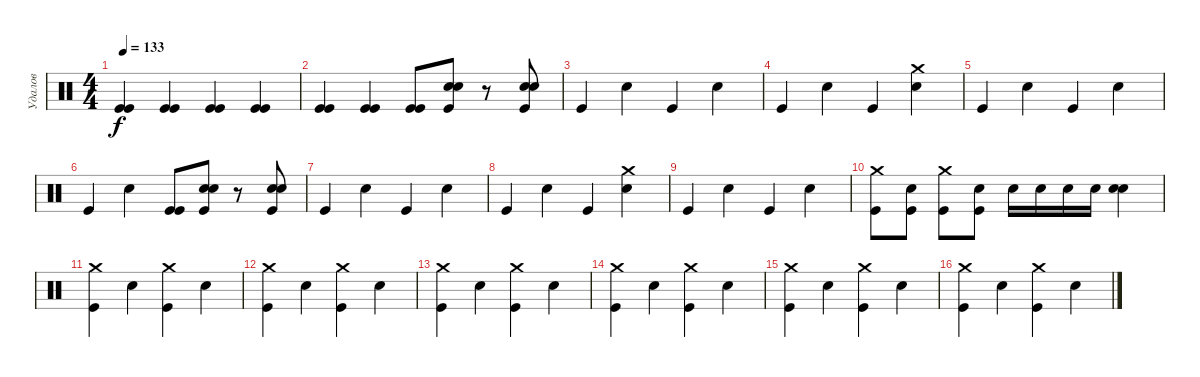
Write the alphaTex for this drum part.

\track ("Удалов" "Удалов") {instrument percussion}
\staff {score}
\articulation defaults
\ts (4 4)
\tempo 133
\clef neutral
\ks c
("Kick (hit)" "Kick (hit)").4{dy f} ("Kick (hit)" "Kick (hit)").4 ("Kick (hit)" "Kick (hit)").4 ("Kick (hit)" "Kick (hit)").4 |
("Kick (hit)" "Kick (hit)").4 ("Kick (hit)" "Kick (hit)").4 ("Kick (hit)" "Kick (hit)").8 ("Electric Snare (hit)" "Electric Snare (hit)" "Kick (hit)").8 r.8 ("Electric Snare (hit)" "Electric Snare (hit)" "Kick (hit)").8 |
"Kick (hit)".4 "Electric Snare (hit)".4 "Kick (hit)".4 "Electric Snare (hit)".4 |
"Kick (hit)".4 "Electric Snare (hit)".4 "Kick (hit)".4 ("Crash medium (hit)" "Electric Snare (hit)").4 |
"Kick (hit)".4 "Electric Snare (hit)".4 "Kick (hit)".4 "Electric Snare (hit)".4 |
"Kick (hit)".4 "Electric Snare (hit)".4 ("Kick (hit)" "Kick (hit)").8 ("Electric Snare (hit)" "Electric Snare (hit)" "Kick (hit)").8 r.8 ("Electric Snare (hit)" "Electric Snare (hit)" "Kick (hit)").8 |
"Kick (hit)".4 "Electric Snare (hit)".4 "Kick (hit)".4 "Electric Snare (hit)".4 |
"Kick (hit)".4 "Electric Snare (hit)".4 "Kick (hit)".4 ("Crash medium (hit)" "Electric Snare (hit)").4 |
"Kick (hit)".4 "Electric Snare (hit)".4 "Kick (hit)".4 "Electric Snare (hit)".4 |
("Crash medium (hit)" "Kick (hit)").8 ("Electric Snare (hit)" "Kick (hit)").8 ("Crash medium (hit)" "Kick (hit)").8 ("Electric Snare (hit)" "Kick (hit)").8 "Electric Snare (hit)".16 "Electric Snare (hit)".16 "Electric Snare (hit)".16 "Electric Snare (hit)".16 ("Electric Snare (hit)" "Snare (hit) 2").4 |
("Crash medium (hit)" "Kick (hit)").4 "Electric Snare (hit)".4 ("Crash medium (hit)" "Kick (hit)").4 "Electric Snare (hit)".4 |
("Crash medium (hit)" "Kick (hit)").4 "Electric Snare (hit)".4 ("Crash medium (hit)" "Kick (hit)").4 "Electric Snare (hit)".4 |
("Crash medium (hit)" "Kick (hit)").4 "Electric Snare (hit)".4 ("Crash medium (hit)" "Kick (hit)").4 "Electric Snare (hit)".4 |
("Crash medium (hit)" "Kick (hit)").4 "Electric Snare (hit)".4 ("Crash medium (hit)" "Kick (hit)").4 "Electric Snare (hit)".4 |
("Crash medium (hit)" "Kick (hit)").4 "Electric Snare (hit)".4 ("Crash medium (hit)" "Kick (hit)").4 "Electric Snare (hit)".4 |
("Crash medium (hit)" "Kick (hit)").4 "Electric Snare (hit)".4 ("Crash medium (hit)" "Kick (hit)").4 "Electric Snare (hit)".4
